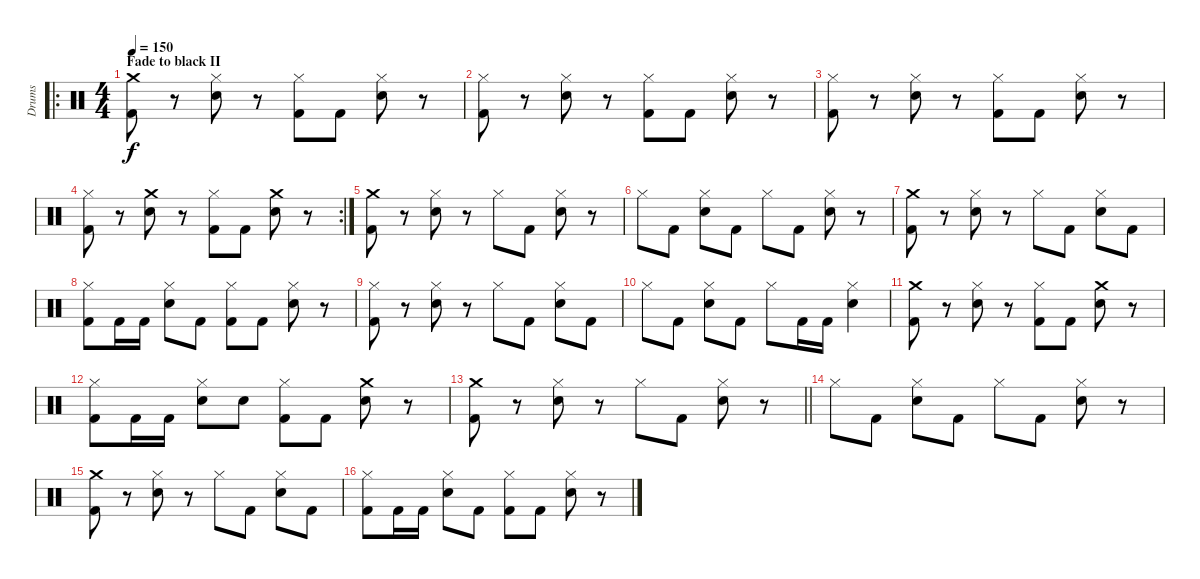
\track ("Drums" "Drums") {instrument percussion}
\staff {score}
\articulation defaults
\ro
\ts (4 4)
\section ("" "Fade to black II")
\tempo 150
\clef neutral
\ks c
("Crash medium (hit)" "Kick (hit) 2").8{dy f} r.8 ("Hi-Hat (closed)" "Snare (hit) 2").8 r.8 ("Hi-Hat (closed)" "Kick (hit) 2").8 "Kick (hit) 2".8 ("Hi-Hat (closed)" "Snare (hit) 2").8 r.8 |
("Hi-Hat (closed)" "Kick (hit) 2").8 r.8 ("Hi-Hat (closed)" "Snare (hit) 2").8 r.8 ("Hi-Hat (closed)" "Kick (hit) 2").8 "Kick (hit) 2".8 ("Hi-Hat (closed)" "Snare (hit) 2").8 r.8 |
("Hi-Hat (closed)" "Kick (hit) 2").8 r.8 ("Hi-Hat (closed)" "Snare (hit) 2").8 r.8 ("Hi-Hat (closed)" "Kick (hit) 2").8 "Kick (hit) 2".8 ("Hi-Hat (closed)" "Snare (hit) 2").8 r.8 |
\rc 2
("Hi-Hat (closed)" "Kick (hit) 2").8 r.8 ("Crash medium (hit)" "Snare (hit) 2").8 r.8 ("Hi-Hat (closed)" "Kick (hit) 2").8 "Kick (hit) 2".8 ("Crash medium (hit)" "Snare (hit) 2").8 r.8 |
("Crash medium (hit)" "Kick (hit) 2").8 r.8 ("Hi-Hat (closed)" "Snare (hit) 2").8 r.8 "Hi-Hat (closed)".8 "Kick (hit) 2".8 ("Hi-Hat (closed)" "Snare (hit) 2").8 r.8 |
"Hi-Hat (closed)".8 "Kick (hit) 2".8 ("Hi-Hat (closed)" "Snare (hit) 2").8 "Kick (hit) 2".8 "Hi-Hat (closed)".8 "Kick (hit) 2".8 ("Hi-Hat (closed)" "Snare (hit) 2").8 r.8 |
("Crash medium (hit)" "Kick (hit) 2").8 r.8 ("Hi-Hat (closed)" "Snare (hit) 2").8 r.8 "Hi-Hat (closed)".8 "Kick (hit) 2".8 ("Hi-Hat (closed)" "Snare (hit) 2").8 "Kick (hit) 2".8 |
("Hi-Hat (closed)" "Kick (hit) 2").8 "Kick (hit) 2".16 "Kick (hit) 2".16 ("Hi-Hat (closed)" "Snare (hit) 2").8 "Kick (hit) 2".8 ("Hi-Hat (closed)" "Kick (hit) 2").8 "Kick (hit) 2".8 ("Hi-Hat (closed)" "Snare (hit) 2").8 r.8 |
("Hi-Hat (closed)" "Kick (hit) 2").8 r.8 ("Hi-Hat (closed)" "Snare (hit) 2").8 r.8 "Hi-Hat (closed)".8 "Kick (hit) 2".8 ("Hi-Hat (closed)" "Snare (hit) 2").8 "Kick (hit) 2".8 |
"Hi-Hat (closed)".8 "Kick (hit) 2".8 ("Hi-Hat (closed)" "Snare (hit) 2").8 "Kick (hit) 2".8 "Hi-Hat (closed)".8 "Kick (hit) 2".16 "Kick (hit) 2".16 ("Hi-Hat (closed)" "Snare (hit) 2").4 |
("Crash medium (hit)" "Kick (hit) 2").8 r.8 ("Snare (hit) 2" "Hi-Hat (closed)").8 r.8 ("Hi-Hat (closed)" "Kick (hit) 2").8 "Kick (hit) 2".8 ("Crash medium (hit)" "Snare (hit) 2").8 r.8 |
("Hi-Hat (closed)" "Kick (hit) 2").8 "Kick (hit) 2".16 "Kick (hit) 2".16 ("Hi-Hat (closed)" "Snare (hit) 2").8 "Snare (hit) 2".8 ("Hi-Hat (closed)" "Kick (hit) 2").8 "Kick (hit) 2".8 ("Crash medium (hit)" "Snare (hit) 2").8 r.8 |
\barLineRight lightlight
("Crash medium (hit)" "Kick (hit) 2").8 r.8 ("Hi-Hat (closed)" "Snare (hit) 2").8 r.8 "Hi-Hat (closed)".8 "Kick (hit) 2".8 ("Hi-Hat (closed)" "Snare (hit) 2").8 r.8 |
"Hi-Hat (closed)".8 "Kick (hit) 2".8 ("Hi-Hat (closed)" "Snare (hit) 2").8 "Kick (hit) 2".8 "Hi-Hat (closed)".8 "Kick (hit) 2".8 ("Hi-Hat (closed)" "Snare (hit) 2").8 r.8 |
("Crash medium (hit)" "Kick (hit) 2").8 r.8 ("Hi-Hat (closed)" "Snare (hit) 2").8 r.8 "Hi-Hat (closed)".8 "Kick (hit) 2".8 ("Hi-Hat (closed)" "Snare (hit) 2").8 "Kick (hit) 2".8 |
("Hi-Hat (closed)" "Kick (hit) 2").8 "Kick (hit) 2".16 "Kick (hit) 2".16 ("Hi-Hat (closed)" "Snare (hit) 2").8 "Kick (hit) 2".8 ("Hi-Hat (closed)" "Kick (hit) 2").8 "Kick (hit) 2".8 ("Hi-Hat (closed)" "Snare (hit) 2").8 r.8
